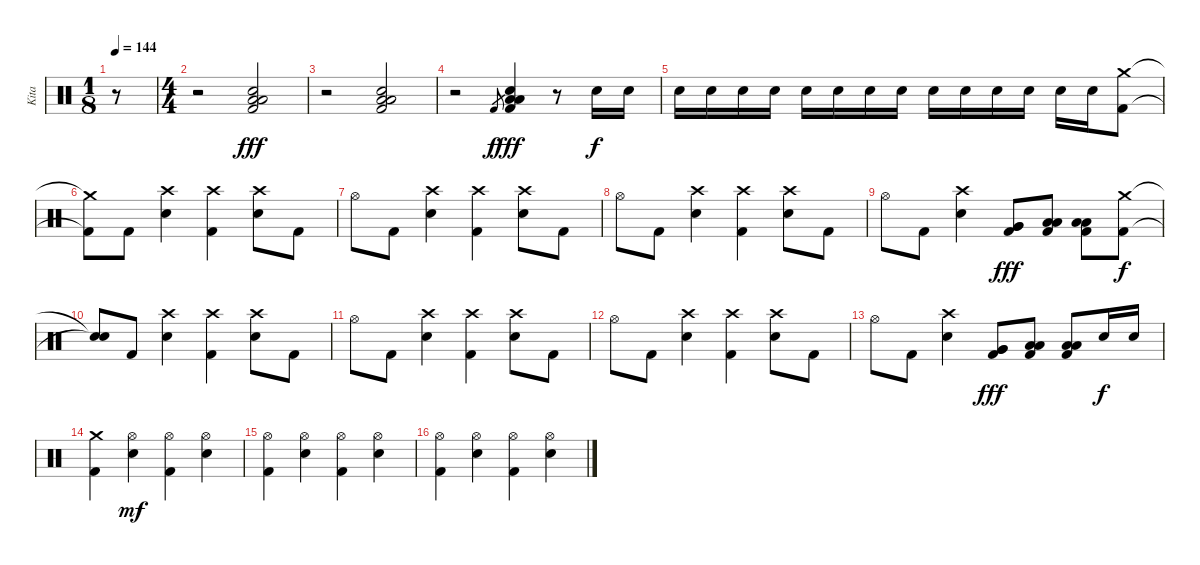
\track ("Kita" "Kita") {instrument percussion}
\staff {score}
\articulation defaults
\ts (1 8)
\tempo 144
\clef neutral
\ks c
r.8{dy fff} |
\ts (4 4)
r.2 ("Kick (hit) 2" "Low Floor Tom (hit)" "Low Floor Tom (hit)" "Snare (hit) 2").2 |
r.2 ("Kick (hit) 2" "Low Floor Tom (hit)" "Low Floor Tom (hit)" "Snare (hit) 2").2 |
r.2 "Kick (hit) 2".8{gr dy f} ("Kick (hit) 2" "Low Floor Tom (hit)" "Low Floor Tom (hit)" "Snare (hit) 2").4{dy fff} r.8{volume 0} "Snare (hit) 2".16{dy f volume 9} "Snare (hit) 2".16 |
"Snare (hit) 2".16 "Snare (hit) 2".16 "Snare (hit) 2".16 "Snare (hit) 2".16 "Snare (hit) 2".16 "Snare (hit) 2".16 "Snare (hit) 2".16 "Snare (hit) 2".16 "Snare (hit) 2".16 "Snare (hit) 2".16 "Snare (hit) 2".16 "Snare (hit) 2".16 "Snare (hit) 2".16 "Snare (hit) 2".16 ("Kick (hit) 2" "Crash medium (hit)").8{volume 13} |
("Kick (hit) 2"{t} "Crash medium (hit)"{t}).8 "Kick (hit) 2".8 ("Crash high (hit)" "Snare (hit) 2").4 ("Kick (hit) 2" "Crash high (hit)").4 ("Crash high (hit)" "Snare (hit) 2").8 "Kick (hit) 2".8 |
"Hi-Hat (open)".8 "Kick (hit) 2".8 ("Crash high (hit)" "Snare (hit) 2").4 ("Kick (hit) 2" "Crash high (hit)").4 ("Crash high (hit)" "Snare (hit) 2").8 "Kick (hit) 2".8 |
"Hi-Hat (open)".8 "Kick (hit) 2".8 ("Crash high (hit)" "Snare (hit) 2").4 ("Kick (hit) 2" "Crash high (hit)").4 ("Crash high (hit)" "Snare (hit) 2").8 "Kick (hit) 2".8 |
"Hi-Hat (open)".8 "Kick (hit) 2".8 ("Crash high (hit)" "Snare (hit) 2").4 ("Kick (hit) 2" "Very Low Tom (hit)" "Very Low Tom (hit)").8{dy fff} ("Kick (hit) 2" "Low Floor Tom (hit)" "Low Floor Tom (hit)").8 ("Kick (hit) 2" "Low Floor Tom (hit)" "Low Floor Tom (hit)").8 ("Kick (hit) 2" "Crash medium (hit)").8{dy f} |
("Snare (hit)"{t} "Snare (hit)"{t}).8 "Kick (hit) 2".8 ("Crash high (hit)" "Snare (hit) 2").4 ("Kick (hit) 2" "Crash high (hit)").4 ("Crash high (hit)" "Snare (hit) 2").8 "Kick (hit) 2".8 |
"Hi-Hat (open)".8 "Kick (hit) 2".8 ("Crash high (hit)" "Snare (hit) 2").4 ("Kick (hit) 2" "Crash high (hit)").4 ("Crash high (hit)" "Snare (hit) 2").8 "Kick (hit) 2".8 |
"Hi-Hat (open)".8 "Kick (hit) 2".8 ("Crash high (hit)" "Snare (hit) 2").4 ("Kick (hit) 2" "Crash high (hit)").4 ("Crash high (hit)" "Snare (hit) 2").8 "Kick (hit) 2".8 |
"Hi-Hat (open)".8 "Kick (hit) 2".8 ("Crash high (hit)" "Snare (hit) 2").4 ("Kick (hit) 2" "Very Low Tom (hit)" "Very Low Tom (hit)").8{dy fff} ("Kick (hit) 2" "Low Floor Tom (hit)" "Low Floor Tom (hit)").8 ("Kick (hit) 2" "Low Floor Tom (hit)" "Low Floor Tom (hit)").8 "Snare (hit) 2".16{dy f} "Snare (hit) 2".16 |
("Kick (hit) 2" "Crash medium (hit)").4 ("Hi-Hat (open)" "Snare (hit) 2").4{dy mf} ("Kick (hit) 2" "Hi-Hat (open)").4 ("Hi-Hat (open)" "Snare (hit) 2").4 |
("Kick (hit) 2" "Hi-Hat (open)").4 ("Hi-Hat (open)" "Snare (hit) 2").4 ("Kick (hit) 2" "Hi-Hat (open)").4 ("Hi-Hat (open)" "Snare (hit) 2").4 |
("Kick (hit) 2" "Hi-Hat (open)").4 ("Hi-Hat (open)" "Snare (hit) 2").4 ("Kick (hit) 2" "Hi-Hat (open)").4 ("Hi-Hat (open)" "Snare (hit) 2").4
